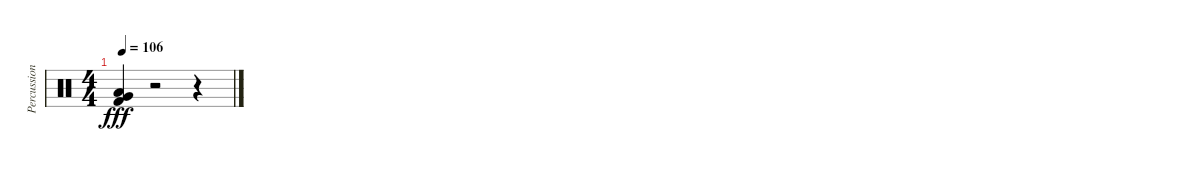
\track ("Percussion" "Percussion") {instrument percussion}
\staff {score}
\articulation defaults
\ts (4 4)
\tempo 106
\clef neutral
\ks c
("Very Low Tom (hit)" "Low Floor Tom (hit)" "Kick (hit) 2").4{dy fff} r.2 r.4
